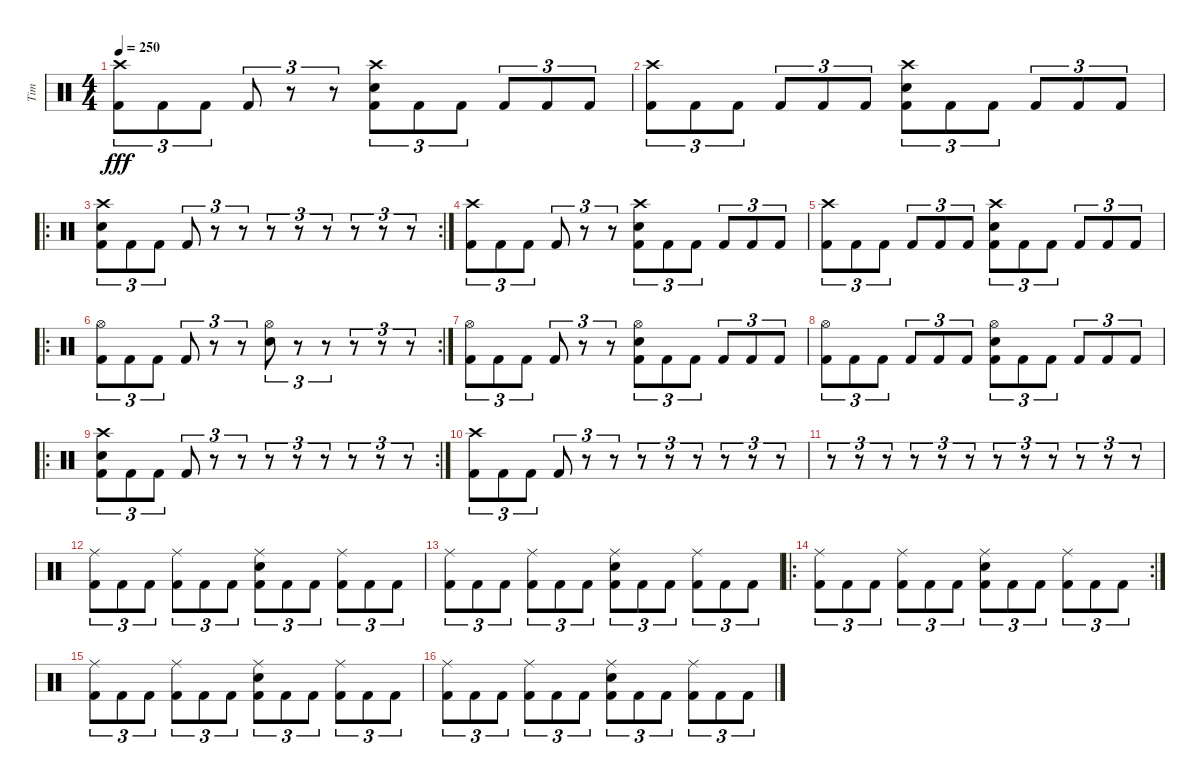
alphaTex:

\track ("Tim" "Tim") {instrument percussion}
\staff {score}
\articulation defaults
\ts (4 4)
\tempo 250
\clef neutral
\ks c
("Crash high (hit)" "Kick (hit) 2").8{tu (3 2) dy fff} "Kick (hit) 2".8{tu (3 2)} "Kick (hit) 2".8{tu (3 2)} "Kick (hit) 2".8{tu (3 2)} r.8{tu (3 2)} r.8{tu (3 2)} ("Crash high (hit)" "Electric Snare (hit)" "Kick (hit) 2").8{tu (3 2)} "Kick (hit) 2".8{tu (3 2)} "Kick (hit) 2".8{tu (3 2)} "Kick (hit) 2".8{tu (3 2)} "Kick (hit) 2".8{tu (3 2)} "Kick (hit) 2".8{tu (3 2)} |
("Crash high (hit)" "Kick (hit) 2").8{tu (3 2)} "Kick (hit) 2".8{tu (3 2)} "Kick (hit) 2".8{tu (3 2)} "Kick (hit) 2".8{tu (3 2)} "Kick (hit) 2".8{tu (3 2)} "Kick (hit) 2".8{tu (3 2)} ("Crash high (hit)" "Electric Snare (hit)" "Kick (hit) 2").8{tu (3 2)} "Kick (hit) 2".8{tu (3 2)} "Kick (hit) 2".8{tu (3 2)} "Kick (hit) 2".8{tu (3 2)} "Kick (hit) 2".8{tu (3 2)} "Kick (hit) 2".8{tu (3 2)} |
\ro
\rc 2
("Crash high (hit)" "Electric Snare (hit)" "Kick (hit) 2").8{tu (3 2)} "Kick (hit) 2".8{tu (3 2)} "Kick (hit) 2".8{tu (3 2)} "Kick (hit) 2".8{tu (3 2)} r.8{tu (3 2)} r.8{tu (3 2)} r.8{tu (3 2)} r.8{tu (3 2)} r.8{tu (3 2)} r.8{tu (3 2)} r.8{tu (3 2)} r.8{tu (3 2)} |
("Crash high (hit)" "Kick (hit) 2").8{tu (3 2)} "Kick (hit) 2".8{tu (3 2)} "Kick (hit) 2".8{tu (3 2)} "Kick (hit) 2".8{tu (3 2)} r.8{tu (3 2)} r.8{tu (3 2)} ("Crash high (hit)" "Electric Snare (hit)" "Kick (hit) 2").8{tu (3 2)} "Kick (hit) 2".8{tu (3 2)} "Kick (hit) 2".8{tu (3 2)} "Kick (hit) 2".8{tu (3 2)} "Kick (hit) 2".8{tu (3 2)} "Kick (hit) 2".8{tu (3 2)} |
("Crash high (hit)" "Kick (hit) 2").8{tu (3 2)} "Kick (hit) 2".8{tu (3 2)} "Kick (hit) 2".8{tu (3 2)} "Kick (hit) 2".8{tu (3 2)} "Kick (hit) 2".8{tu (3 2)} "Kick (hit) 2".8{tu (3 2)} ("Crash high (hit)" "Electric Snare (hit)" "Kick (hit) 2").8{tu (3 2)} "Kick (hit) 2".8{tu (3 2)} "Kick (hit) 2".8{tu (3 2)} "Kick (hit) 2".8{tu (3 2)} "Kick (hit) 2".8{tu (3 2)} "Kick (hit) 2".8{tu (3 2)} |
\ro
\rc 2
("Hi-Hat (open)" "Kick (hit) 2").8{tu (3 2)} "Kick (hit) 2".8{tu (3 2)} "Kick (hit) 2".8{tu (3 2)} "Kick (hit) 2".8{tu (3 2)} r.8{tu (3 2)} r.8{tu (3 2)} ("Hi-Hat (open)" "Electric Snare (hit)").8{tu (3 2)} r.8{tu (3 2)} r.8{tu (3 2)} r.8{tu (3 2)} r.8{tu (3 2)} r.8{tu (3 2)} |
("Hi-Hat (open)" "Kick (hit) 2").8{tu (3 2)} "Kick (hit) 2".8{tu (3 2)} "Kick (hit) 2".8{tu (3 2)} "Kick (hit) 2".8{tu (3 2)} r.8{tu (3 2)} r.8{tu (3 2)} ("Hi-Hat (open)" "Electric Snare (hit)" "Kick (hit) 2").8{tu (3 2)} "Kick (hit) 2".8{tu (3 2)} "Kick (hit) 2".8{tu (3 2)} "Kick (hit) 2".8{tu (3 2)} "Kick (hit) 2".8{tu (3 2)} "Kick (hit) 2".8{tu (3 2)} |
("Hi-Hat (open)" "Kick (hit) 2").8{tu (3 2)} "Kick (hit) 2".8{tu (3 2)} "Kick (hit) 2".8{tu (3 2)} "Kick (hit) 2".8{tu (3 2)} "Kick (hit) 2".8{tu (3 2)} "Kick (hit) 2".8{tu (3 2)} ("Hi-Hat (open)" "Electric Snare (hit)" "Kick (hit) 2").8{tu (3 2)} "Kick (hit) 2".8{tu (3 2)} "Kick (hit) 2".8{tu (3 2)} "Kick (hit) 2".8{tu (3 2)} "Kick (hit) 2".8{tu (3 2)} "Kick (hit) 2".8{tu (3 2)} |
\ro
\rc 2
("Crash high (hit)" "Electric Snare (hit)" "Kick (hit) 2").8{tu (3 2)} "Kick (hit) 2".8{tu (3 2)} "Kick (hit) 2".8{tu (3 2)} "Kick (hit) 2".8{tu (3 2)} r.8{tu (3 2)} r.8{tu (3 2)} r.8{tu (3 2)} r.8{tu (3 2)} r.8{tu (3 2)} r.8{tu (3 2)} r.8{tu (3 2)} r.8{tu (3 2)} |
("Crash high (hit)" "Kick (hit) 2").8{tu (3 2)} "Kick (hit) 2".8{tu (3 2)} "Kick (hit) 2".8{tu (3 2)} "Kick (hit) 2".8{tu (3 2)} r.8{tu (3 2)} r.8{tu (3 2)} r.8{tu (3 2)} r.8{tu (3 2)} r.8{tu (3 2)} r.8{tu (3 2)} r.8{tu (3 2)} r.8{tu (3 2)} |
r.8{tu (3 2)} r.8{tu (3 2)} r.8{tu (3 2)} r.8{tu (3 2)} r.8{tu (3 2)} r.8{tu (3 2)} r.8{tu (3 2)} r.8{tu (3 2)} r.8{tu (3 2)} r.8{tu (3 2)} r.8{tu (3 2)} r.8{tu (3 2)} |
("Ride (middle)" "Kick (hit) 2").8{tu (3 2)} "Kick (hit) 2".8{tu (3 2)} "Kick (hit) 2".8{tu (3 2)} ("Ride (middle)" "Kick (hit) 2").8{tu (3 2)} "Kick (hit) 2".8{tu (3 2)} "Kick (hit) 2".8{tu (3 2)} ("Ride (middle)" "Electric Snare (hit)" "Kick (hit) 2").8{tu (3 2)} "Kick (hit) 2".8{tu (3 2)} "Kick (hit) 2".8{tu (3 2)} ("Ride (middle)" "Kick (hit) 2").8{tu (3 2)} "Kick (hit) 2".8{tu (3 2)} "Kick (hit) 2".8{tu (3 2)} |
("Ride (middle)" "Kick (hit) 2").8{tu (3 2)} "Kick (hit) 2".8{tu (3 2)} "Kick (hit) 2".8{tu (3 2)} ("Ride (middle)" "Kick (hit) 2").8{tu (3 2)} "Kick (hit) 2".8{tu (3 2)} "Kick (hit) 2".8{tu (3 2)} ("Ride (middle)" "Electric Snare (hit)" "Kick (hit) 2").8{tu (3 2)} "Kick (hit) 2".8{tu (3 2)} "Kick (hit) 2".8{tu (3 2)} ("Ride (middle)" "Kick (hit) 2").8{tu (3 2)} "Kick (hit) 2".8{tu (3 2)} "Kick (hit) 2".8{tu (3 2)} |
\ro
\rc 2
("Ride (middle)" "Kick (hit) 2").8{tu (3 2)} "Kick (hit) 2".8{tu (3 2)} "Kick (hit) 2".8{tu (3 2)} ("Ride (middle)" "Kick (hit) 2").8{tu (3 2)} "Kick (hit) 2".8{tu (3 2)} "Kick (hit) 2".8{tu (3 2)} ("Ride (middle)" "Electric Snare (hit)" "Kick (hit) 2").8{tu (3 2)} "Kick (hit) 2".8{tu (3 2)} "Kick (hit) 2".8{tu (3 2)} ("Ride (middle)" "Kick (hit) 2").8{tu (3 2)} "Kick (hit) 2".8{tu (3 2)} "Kick (hit) 2".8{tu (3 2)} |
("Ride (middle)" "Kick (hit) 2").8{tu (3 2)} "Kick (hit) 2".8{tu (3 2)} "Kick (hit) 2".8{tu (3 2)} ("Ride (middle)" "Kick (hit) 2").8{tu (3 2)} "Kick (hit) 2".8{tu (3 2)} "Kick (hit) 2".8{tu (3 2)} ("Ride (middle)" "Electric Snare (hit)" "Kick (hit) 2").8{tu (3 2)} "Kick (hit) 2".8{tu (3 2)} "Kick (hit) 2".8{tu (3 2)} ("Ride (middle)" "Kick (hit) 2").8{tu (3 2)} "Kick (hit) 2".8{tu (3 2)} "Kick (hit) 2".8{tu (3 2)} |
("Ride (middle)" "Kick (hit) 2").8{tu (3 2)} "Kick (hit) 2".8{tu (3 2)} "Kick (hit) 2".8{tu (3 2)} ("Ride (middle)" "Kick (hit) 2").8{tu (3 2)} "Kick (hit) 2".8{tu (3 2)} "Kick (hit) 2".8{tu (3 2)} ("Ride (middle)" "Electric Snare (hit)" "Kick (hit) 2").8{tu (3 2)} "Kick (hit) 2".8{tu (3 2)} "Kick (hit) 2".8{tu (3 2)} ("Ride (middle)" "Kick (hit) 2").8{tu (3 2)} "Kick (hit) 2".8{tu (3 2)} "Kick (hit) 2".8{tu (3 2)}
